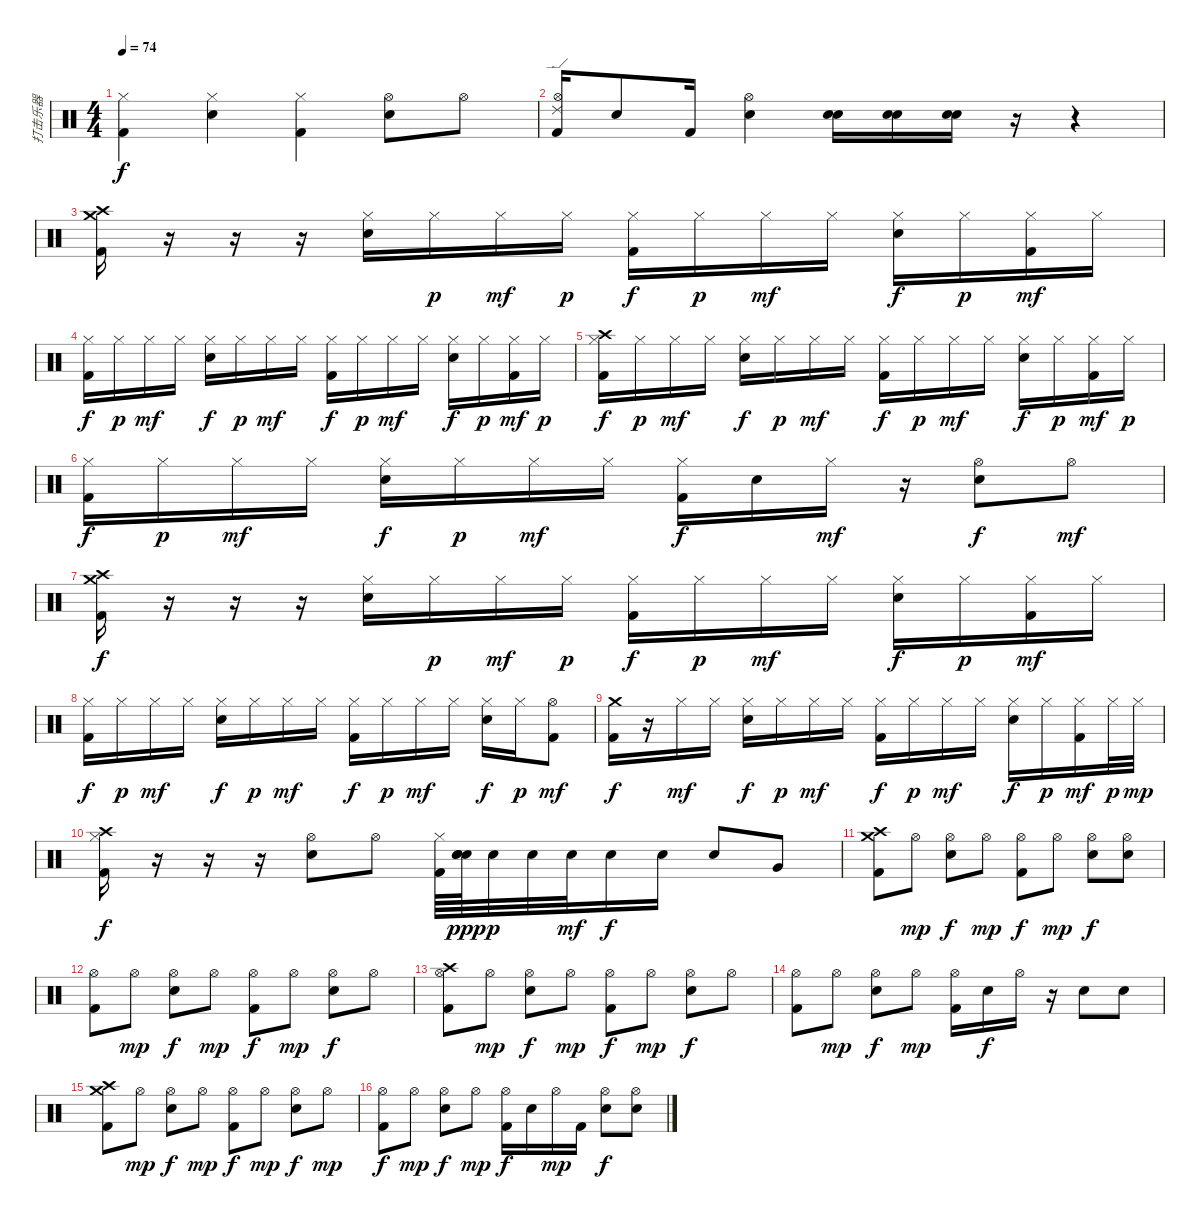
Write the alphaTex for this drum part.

\track ("打击乐器" "打击乐器") {instrument percussion}
\staff {score}
\articulation defaults
\ts (4 4)
\tempo 74
\clef neutral
\ks c
("Hi-Hat (closed)" "Kick (hit) 2").4{dy f} ("Electric Snare (hit)" "Hi-Hat (closed)").4 ("Hi-Hat (closed)" "Kick (hit) 2").4 ("Electric Snare (hit)" "Hi-Hat (open)").8 "Hi-Hat (open)".8 |
("Ride (edge) 2" "Hi-Hat (open)" "Kick (hit) 2").16 "Electric Snare (hit)".8 "Kick (hit) 2".16 ("Electric Snare (hit)" "Hi-Hat (open)").4 ("Electric Snare (hit)" "Electric Snare (hit)").16 ("Electric Snare (hit)" "Electric Snare (hit)").16 ("Electric Snare (hit)" "Electric Snare (hit)").16 r.16 r.4 |
("Crash high (hit)" "Crash medium (hit)" "Kick (hit) 2").16 r.16 r.16 r.16 ("Electric Snare (hit)" "Hi-Hat (closed)").16 "Hi-Hat (closed)".16{dy p} "Hi-Hat (closed)".16{dy mf} "Hi-Hat (closed)".16{dy p} ("Hi-Hat (closed)" "Kick (hit) 2").16{dy f} "Hi-Hat (closed)".16{dy p} "Hi-Hat (closed)".16{dy mf} "Hi-Hat (closed)".16 ("Electric Snare (hit)" "Hi-Hat (closed)").16{dy f} "Hi-Hat (closed)".16{dy p} ("Hi-Hat (closed)" "Kick (hit) 2").16{dy mf} "Hi-Hat (closed)".16 |
("Hi-Hat (closed)" "Kick (hit) 2").16{dy f} "Hi-Hat (closed)".16{dy p} "Hi-Hat (closed)".16{dy mf} "Hi-Hat (closed)".16 ("Electric Snare (hit)" "Hi-Hat (closed)").16{dy f} "Hi-Hat (closed)".16{dy p} "Hi-Hat (closed)".16{dy mf} "Hi-Hat (closed)".16 ("Hi-Hat (closed)" "Kick (hit) 2").16{dy f} "Hi-Hat (closed)".16{dy p} "Hi-Hat (closed)".16{dy mf} "Hi-Hat (closed)".16 ("Electric Snare (hit)" "Hi-Hat (closed)").16{dy f} "Hi-Hat (closed)".16{dy p} ("Hi-Hat (closed)" "Kick (hit) 2").16{dy mf} "Hi-Hat (closed)".16{dy p} |
("Crash high (hit)" "Hi-Hat (closed)" "Kick (hit) 2").16{dy f} "Hi-Hat (closed)".16{dy p} "Hi-Hat (closed)".16{dy mf} "Hi-Hat (closed)".16 ("Electric Snare (hit)" "Hi-Hat (closed)").16{dy f} "Hi-Hat (closed)".16{dy p} "Hi-Hat (closed)".16{dy mf} "Hi-Hat (closed)".16 ("Hi-Hat (closed)" "Kick (hit) 2").16{dy f} "Hi-Hat (closed)".16{dy p} "Hi-Hat (closed)".16{dy mf} "Hi-Hat (closed)".16 ("Electric Snare (hit)" "Hi-Hat (closed)").16{dy f} "Hi-Hat (closed)".16{dy p} ("Hi-Hat (closed)" "Kick (hit) 2").16{dy mf} "Hi-Hat (closed)".16{dy p} |
("Hi-Hat (closed)" "Kick (hit) 2").16{dy f} "Hi-Hat (closed)".16{dy p} "Hi-Hat (closed)".16{dy mf} "Hi-Hat (closed)".16 ("Electric Snare (hit)" "Hi-Hat (closed)").16{dy f} "Hi-Hat (closed)".16{dy p} "Hi-Hat (closed)".16{dy mf} "Hi-Hat (closed)".16 ("Hi-Hat (closed)" "Kick (hit) 2").16{dy f} "Electric Snare (hit)".16 "Hi-Hat (closed)".16{dy mf} r.16 ("Electric Snare (hit)" "Hi-Hat (open)").8{dy f} "Hi-Hat (open)".8{dy mf} |
("Crash high (hit)" "Crash medium (hit)" "Kick (hit) 2").16{dy f} r.16 r.16 r.16 ("Electric Snare (hit)" "Hi-Hat (closed)").16 "Hi-Hat (closed)".16{dy p} "Hi-Hat (closed)".16{dy mf} "Hi-Hat (closed)".16{dy p} ("Hi-Hat (closed)" "Kick (hit) 2").16{dy f} "Hi-Hat (closed)".16{dy p} "Hi-Hat (closed)".16{dy mf} "Hi-Hat (closed)".16 ("Electric Snare (hit)" "Hi-Hat (closed)").16{dy f} "Hi-Hat (closed)".16{dy p} ("Hi-Hat (closed)" "Kick (hit) 2").16{dy mf} "Hi-Hat (closed)".16 |
("Hi-Hat (closed)" "Kick (hit) 2").16{dy f} "Hi-Hat (closed)".16{dy p} "Hi-Hat (closed)".16{dy mf} "Hi-Hat (closed)".16 ("Electric Snare (hit)" "Hi-Hat (closed)").16{dy f} "Hi-Hat (closed)".16{dy p} "Hi-Hat (closed)".16{dy mf} "Hi-Hat (closed)".16 ("Hi-Hat (closed)" "Kick (hit) 2").16{dy f} "Hi-Hat (closed)".16{dy p} "Hi-Hat (closed)".16{dy mf} "Hi-Hat (closed)".16 ("Electric Snare (hit)" "Hi-Hat (closed)").16{dy f} "Hi-Hat (closed)".16{dy p} ("Hi-Hat (open)" "Kick (hit) 2").8{dy mf} |
("Crash medium (hit)" "Kick (hit) 2").16{dy f} r.16 "Hi-Hat (closed)".16{dy mf} "Hi-Hat (closed)".16 ("Electric Snare (hit)" "Hi-Hat (closed)").16{dy f} "Hi-Hat (closed)".16{dy p} "Hi-Hat (closed)".16{dy mf} "Hi-Hat (closed)".16 ("Hi-Hat (closed)" "Kick (hit) 2").16{dy f} "Hi-Hat (closed)".16{dy p} "Hi-Hat (closed)".16{dy mf} "Hi-Hat (closed)".16 ("Electric Snare (hit)" "Hi-Hat (closed)").16{dy f} "Hi-Hat (closed)".16{dy p} ("Hi-Hat (closed)" "Kick (hit) 2").16{dy mf} "Hi-Hat (closed)".32{dy p} "Hi-Hat (closed)".32{dy mp} |
("Crash high (hit)" "Hi-Hat (closed)" "Kick (hit) 2").16{dy f} r.16 r.16 r.16 ("Electric Snare (hit)" "Hi-Hat (open)").8 "Hi-Hat (open)".8 ("Hi-Hat (closed)" "Kick (hit) 2").64 ("Electric Snare (hit)" "Electric Snare (hit)" "Electric Snare (hit)").64{bd 480 dy ppp} "Electric Snare (hit)".32{bd 480 dy p} "Electric Snare (hit)".32 "Electric Snare (hit)".32{dy mf} "Electric Snare (hit)".16{dy f} "Electric Snare (hit)".16 "Electric Snare (hit)".8 "Very Low Tom (hit)".8 |
("Crash high (hit)" "Crash medium (hit)" "Kick (hit) 2").8 "Hi-Hat (open)".8{dy mp} ("Electric Snare (hit)" "Hi-Hat (open)").8{dy f} "Hi-Hat (open)".8{dy mp} ("Hi-Hat (open)" "Kick (hit) 2").8{dy f} "Hi-Hat (open)".8{dy mp} ("Electric Snare (hit)" "Hi-Hat (open)").8{dy f} ("Electric Snare (hit)" "Hi-Hat (open)").8 |
("Hi-Hat (open)" "Kick (hit) 2").8 "Hi-Hat (open)".8{dy mp} ("Electric Snare (hit)" "Hi-Hat (open)").8{dy f} "Hi-Hat (open)".8{dy mp} ("Hi-Hat (open)" "Kick (hit) 2").8{dy f} "Hi-Hat (open)".8{dy mp} ("Electric Snare (hit)" "Hi-Hat (open)").8{dy f} "Hi-Hat (open)".8 |
("Crash high (hit)" "Hi-Hat (open)" "Kick (hit) 2").8 "Hi-Hat (open)".8{dy mp} ("Electric Snare (hit)" "Hi-Hat (open)").8{dy f} "Hi-Hat (open)".8{dy mp} ("Hi-Hat (open)" "Kick (hit) 2").8{dy f} "Hi-Hat (open)".8{dy mp} ("Electric Snare (hit)" "Hi-Hat (open)").8{dy f} "Hi-Hat (open)".8 |
("Hi-Hat (open)" "Kick (hit) 2").8 "Hi-Hat (open)".8{dy mp} ("Electric Snare (hit)" "Hi-Hat (open)").8{dy f} "Hi-Hat (open)".8{dy mp} ("Hi-Hat (open)" "Kick (hit) 2").16 "Electric Snare (hit)".16{dy f} "Hi-Hat (open)".16 r.16 "Electric Snare (hit)".8 "Electric Snare (hit)".8 |
("Crash high (hit)" "Crash medium (hit)" "Kick (hit) 2").8 "Hi-Hat (open)".8{dy mp} ("Electric Snare (hit)" "Hi-Hat (open)").8{dy f} "Hi-Hat (open)".8{dy mp} ("Hi-Hat (open)" "Kick (hit) 2").8{dy f} "Hi-Hat (open)".8{dy mp} ("Electric Snare (hit)" "Hi-Hat (open)").8{dy f} "Hi-Hat (open)".8{dy mp} |
("Hi-Hat (open)" "Kick (hit) 2").8{dy f} "Hi-Hat (open)".8{dy mp} ("Electric Snare (hit)" "Hi-Hat (open)").8{dy f} "Hi-Hat (open)".8{dy mp} ("Hi-Hat (open)" "Kick (hit) 2").16{dy f} "Electric Snare (hit)".16 "Hi-Hat (open)".16{dy mp} "Kick (hit) 2".16 ("Electric Snare (hit)" "Hi-Hat (open)").8{dy f} ("Electric Snare (hit)" "Hi-Hat (open)").8
